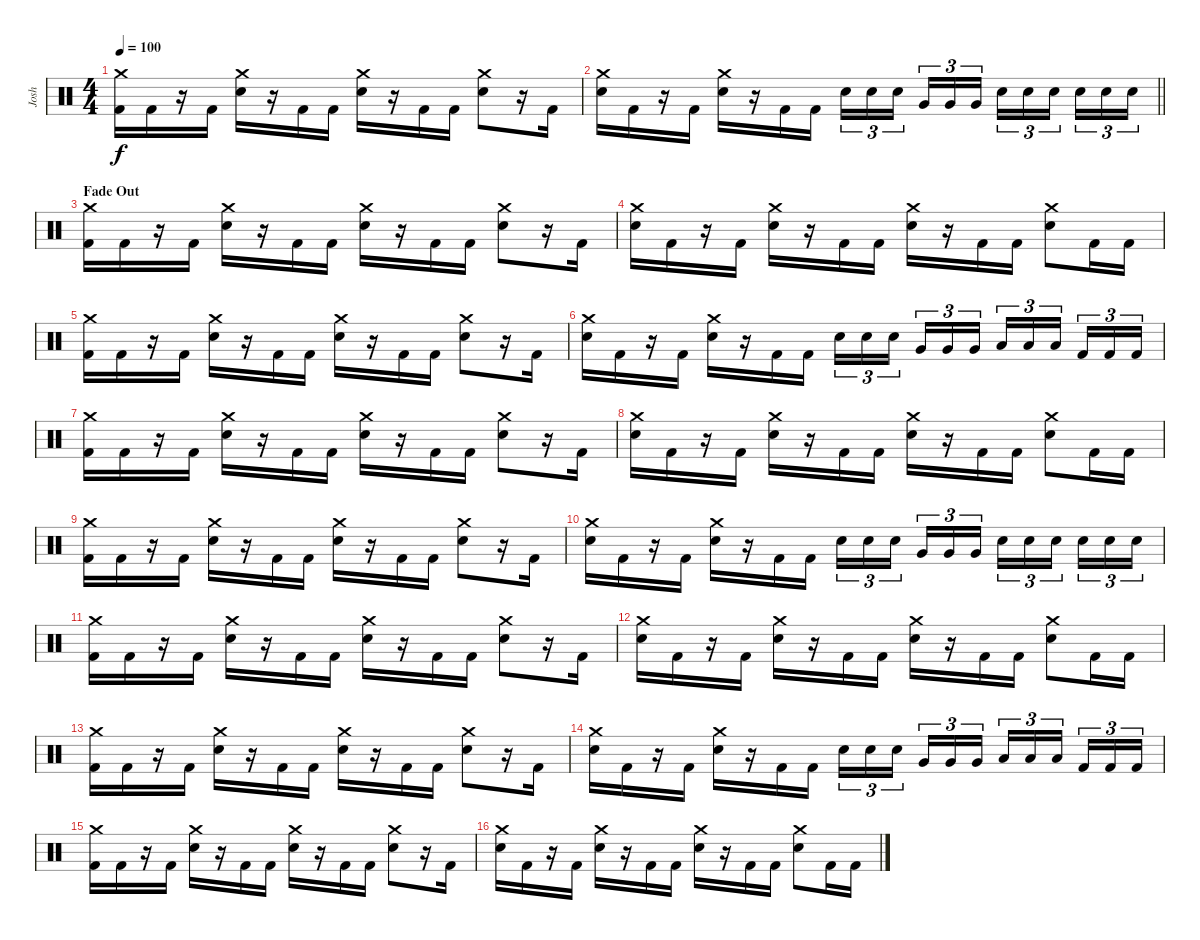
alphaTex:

\track ("Josh" "Josh") {instrument percussion}
\staff {score}
\articulation defaults
\ts (4 4)
\tempo 100
\clef neutral
\ks c
("Crash medium (hit)" "Kick (hit) 2").16{dy f} "Kick (hit) 2".16 r.16 "Kick (hit) 2".16 ("Crash medium (hit)" "Snare (hit) 2").16 r.16 "Kick (hit) 2".16 "Kick (hit) 2".16 ("Crash medium (hit)" "Snare (hit) 2").16 r.16 "Kick (hit) 2".16 "Kick (hit) 2".16 ("Crash medium (hit)" "Snare (hit) 2").8 r.16 "Kick (hit) 2".16 |
\barLineRight lightlight
("Crash medium (hit)" "Snare (hit) 2").16 "Kick (hit) 2".16 r.16 "Kick (hit) 2".16 ("Crash medium (hit)" "Snare (hit) 2").16 r.16 "Kick (hit) 2".16 "Kick (hit) 2".16 "Snare (hit) 2".16{tu (3 2)} "Snare (hit) 2".16{tu (3 2)} "Snare (hit) 2".16{tu (3 2) beam splitsecondary} "Very Low Tom (hit)".16{tu (3 2)} "Very Low Tom (hit)".16{tu (3 2)} "Very Low Tom (hit)".16{tu (3 2)} "Snare (hit) 2".16{tu (3 2)} "Snare (hit) 2".16{tu (3 2)} "Snare (hit) 2".16{tu (3 2) beam splitsecondary} "Snare (hit) 2".16{tu (3 2)} "Snare (hit) 2".16{tu (3 2)} "Snare (hit) 2".16{tu (3 2)} |
\section ("" "Fade Out")
("Crash medium (hit)" "Kick (hit) 2").16 "Kick (hit) 2".16 r.16 "Kick (hit) 2".16 ("Crash medium (hit)" "Snare (hit) 2").16 r.16 "Kick (hit) 2".16 "Kick (hit) 2".16 ("Crash medium (hit)" "Snare (hit) 2").16 r.16 "Kick (hit) 2".16 "Kick (hit) 2".16 ("Crash medium (hit)" "Snare (hit) 2").8 r.16 "Kick (hit) 2".16 |
("Crash medium (hit)" "Snare (hit) 2").16 "Kick (hit) 2".16 r.16 "Kick (hit) 2".16 ("Crash medium (hit)" "Snare (hit) 2").16 r.16 "Kick (hit) 2".16 "Kick (hit) 2".16 ("Crash medium (hit)" "Snare (hit) 2").16 r.16 "Kick (hit) 2".16 "Kick (hit) 2".16 ("Crash medium (hit)" "Snare (hit) 2").8 "Kick (hit) 2".16 "Kick (hit) 2".16 |
("Crash medium (hit)" "Kick (hit) 2").16 "Kick (hit) 2".16 r.16 "Kick (hit) 2".16 ("Crash medium (hit)" "Snare (hit) 2").16 r.16 "Kick (hit) 2".16 "Kick (hit) 2".16 ("Crash medium (hit)" "Snare (hit) 2").16 r.16 "Kick (hit) 2".16 "Kick (hit) 2".16 ("Crash medium (hit)" "Snare (hit) 2").8 r.16 "Kick (hit) 2".16 |
("Crash medium (hit)" "Snare (hit) 2").16 "Kick (hit) 2".16 r.16 "Kick (hit) 2".16 ("Crash medium (hit)" "Snare (hit) 2").16 r.16 "Kick (hit) 2".16 "Kick (hit) 2".16 "Snare (hit) 2".16{tu (3 2)} "Snare (hit) 2".16{tu (3 2)} "Snare (hit) 2".16{tu (3 2) beam splitsecondary} "Very Low Tom (hit)".16{tu (3 2)} "Very Low Tom (hit)".16{tu (3 2)} "Very Low Tom (hit)".16{tu (3 2)} "Low Floor Tom (hit)".16{tu (3 2)} "Low Floor Tom (hit)".16{tu (3 2)} "Low Floor Tom (hit)".16{tu (3 2) beam splitsecondary} "Kick (hit) 2".16{tu (3 2)} "Kick (hit) 2".16{tu (3 2)} "Kick (hit) 2".16{tu (3 2)} |
("Crash medium (hit)" "Kick (hit) 2").16 "Kick (hit) 2".16 r.16 "Kick (hit) 2".16 ("Crash medium (hit)" "Snare (hit) 2").16 r.16 "Kick (hit) 2".16 "Kick (hit) 2".16 ("Crash medium (hit)" "Snare (hit) 2").16 r.16 "Kick (hit) 2".16 "Kick (hit) 2".16 ("Crash medium (hit)" "Snare (hit) 2").8 r.16 "Kick (hit) 2".16 |
("Crash medium (hit)" "Snare (hit) 2").16 "Kick (hit) 2".16 r.16 "Kick (hit) 2".16 ("Crash medium (hit)" "Snare (hit) 2").16 r.16 "Kick (hit) 2".16 "Kick (hit) 2".16 ("Crash medium (hit)" "Snare (hit) 2").16 r.16 "Kick (hit) 2".16 "Kick (hit) 2".16 ("Crash medium (hit)" "Snare (hit) 2").8 "Kick (hit) 2".16 "Kick (hit) 2".16 |
("Crash medium (hit)" "Kick (hit) 2").16 "Kick (hit) 2".16 r.16 "Kick (hit) 2".16 ("Crash medium (hit)" "Snare (hit) 2").16 r.16 "Kick (hit) 2".16 "Kick (hit) 2".16 ("Crash medium (hit)" "Snare (hit) 2").16 r.16 "Kick (hit) 2".16 "Kick (hit) 2".16 ("Crash medium (hit)" "Snare (hit) 2").8 r.16 "Kick (hit) 2".16 |
("Crash medium (hit)" "Snare (hit) 2").16 "Kick (hit) 2".16 r.16 "Kick (hit) 2".16 ("Crash medium (hit)" "Snare (hit) 2").16 r.16 "Kick (hit) 2".16 "Kick (hit) 2".16 "Snare (hit) 2".16{tu (3 2)} "Snare (hit) 2".16{tu (3 2)} "Snare (hit) 2".16{tu (3 2) beam splitsecondary} "Very Low Tom (hit)".16{tu (3 2)} "Very Low Tom (hit)".16{tu (3 2)} "Very Low Tom (hit)".16{tu (3 2)} "Snare (hit) 2".16{tu (3 2)} "Snare (hit) 2".16{tu (3 2)} "Snare (hit) 2".16{tu (3 2) beam splitsecondary} "Snare (hit) 2".16{tu (3 2)} "Snare (hit) 2".16{tu (3 2)} "Snare (hit) 2".16{tu (3 2)} |
("Crash medium (hit)" "Kick (hit) 2").16 "Kick (hit) 2".16 r.16 "Kick (hit) 2".16 ("Crash medium (hit)" "Snare (hit) 2").16 r.16 "Kick (hit) 2".16 "Kick (hit) 2".16 ("Crash medium (hit)" "Snare (hit) 2").16 r.16 "Kick (hit) 2".16 "Kick (hit) 2".16 ("Crash medium (hit)" "Snare (hit) 2").8 r.16 "Kick (hit) 2".16 |
("Crash medium (hit)" "Snare (hit) 2").16 "Kick (hit) 2".16 r.16 "Kick (hit) 2".16 ("Crash medium (hit)" "Snare (hit) 2").16 r.16 "Kick (hit) 2".16 "Kick (hit) 2".16 ("Crash medium (hit)" "Snare (hit) 2").16 r.16 "Kick (hit) 2".16 "Kick (hit) 2".16 ("Crash medium (hit)" "Snare (hit) 2").8 "Kick (hit) 2".16 "Kick (hit) 2".16 |
("Crash medium (hit)" "Kick (hit) 2").16 "Kick (hit) 2".16 r.16 "Kick (hit) 2".16 ("Crash medium (hit)" "Snare (hit) 2").16 r.16 "Kick (hit) 2".16 "Kick (hit) 2".16 ("Crash medium (hit)" "Snare (hit) 2").16 r.16 "Kick (hit) 2".16 "Kick (hit) 2".16 ("Crash medium (hit)" "Snare (hit) 2").8 r.16 "Kick (hit) 2".16 |
("Crash medium (hit)" "Snare (hit) 2").16 "Kick (hit) 2".16 r.16 "Kick (hit) 2".16 ("Crash medium (hit)" "Snare (hit) 2").16 r.16 "Kick (hit) 2".16 "Kick (hit) 2".16 "Snare (hit) 2".16{tu (3 2)} "Snare (hit) 2".16{tu (3 2)} "Snare (hit) 2".16{tu (3 2) beam splitsecondary} "Very Low Tom (hit)".16{tu (3 2)} "Very Low Tom (hit)".16{tu (3 2)} "Very Low Tom (hit)".16{tu (3 2)} "Low Floor Tom (hit)".16{tu (3 2)} "Low Floor Tom (hit)".16{tu (3 2)} "Low Floor Tom (hit)".16{tu (3 2) beam splitsecondary} "Kick (hit) 2".16{tu (3 2)} "Kick (hit) 2".16{tu (3 2)} "Kick (hit) 2".16{tu (3 2)} |
("Crash medium (hit)" "Kick (hit) 2").16 "Kick (hit) 2".16 r.16 "Kick (hit) 2".16 ("Crash medium (hit)" "Snare (hit) 2").16 r.16 "Kick (hit) 2".16 "Kick (hit) 2".16 ("Crash medium (hit)" "Snare (hit) 2").16 r.16 "Kick (hit) 2".16 "Kick (hit) 2".16 ("Crash medium (hit)" "Snare (hit) 2").8 r.16 "Kick (hit) 2".16 |
("Crash medium (hit)" "Snare (hit) 2").16 "Kick (hit) 2".16 r.16 "Kick (hit) 2".16 ("Crash medium (hit)" "Snare (hit) 2").16 r.16 "Kick (hit) 2".16 "Kick (hit) 2".16 ("Crash medium (hit)" "Snare (hit) 2").16 r.16 "Kick (hit) 2".16 "Kick (hit) 2".16 ("Crash medium (hit)" "Snare (hit) 2").8 "Kick (hit) 2".16 "Kick (hit) 2".16
